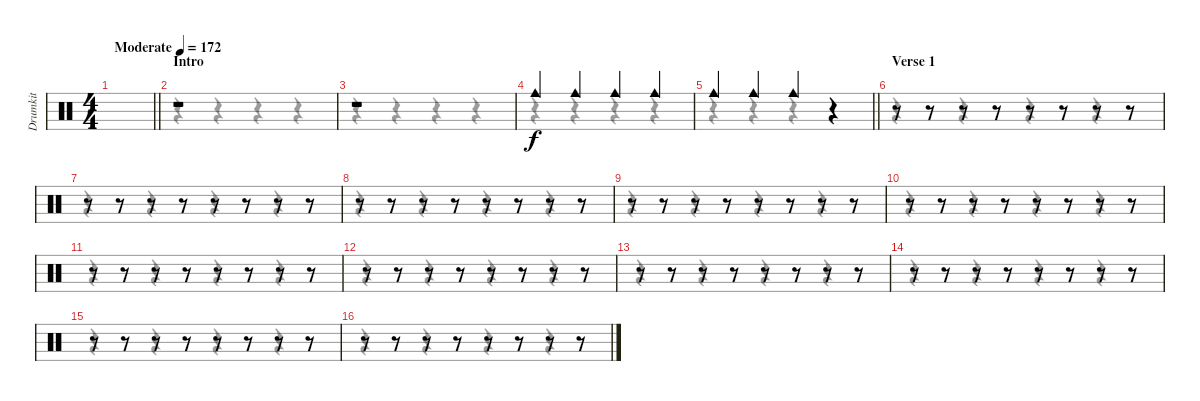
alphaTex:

\track ("Drumkit" "Drumkit") {instrument percussion}
\staff {score}
\articulation defaults
\voice
\ts (4 4)
\tempo (172 "Moderate")
\clef neutral
\barLineRight lightlight
\ks c
|
\section ("" "Intro")
r.1 |
r.1 |
"Cowbell medium (hit)".4 "Cowbell medium (hit)".4 "Cowbell medium (hit)".4 "Cowbell medium (hit)".4 |
\barLineRight lightlight "Cowbell medium (hit)".4 "Cowbell medium (hit)".4 "Cowbell medium (hit)".4
r.4 |
\section ("" "Verse 1")
r.8 r.8 r.8 r.8 r.8 r.8 r.8 r.8 |
r.8 r.8 r.8 r.8 r.8 r.8 r.8 r.8 |
r.8 r.8 r.8 r.8 r.8 r.8 r.8 r.8 |
r.8 r.8 r.8 r.8 r.8 r.8 r.8 r.8 |
r.8 r.8 r.8 r.8 r.8 r.8 r.8 r.8 |
r.8 r.8 r.8 r.8 r.8 r.8 r.8 r.8 |
r.8 r.8 r.8 r.8 r.8 r.8 r.8 r.8 |
r.8 r.8 r.8 r.8 r.8 r.8 r.8 r.8 |
r.8 r.8 r.8 r.8 r.8 r.8 r.8 r.8 |
r.8 r.8 r.8 r.8 r.8 r.8 r.8 r.8 |
r.8 r.8 r.8 r.8 r.8 r.8 r.8 r.8
\voice
\clef neutral
\ottava regular
\simile none
\barLineRight lightlight
\ks c
|
r.4 r.4 r.4 r.4 |
r.4 r.4 r.4 r.4 |
r.4 r.4 r.4 r.4 |
\barLineRight lightlight
r.4 r.4 r.4 r.4 |
r.4 r.4 r.4 r.4 |
r.4 r.4 r.4 r.4 |
r.4 r.4 r.4 r.4 |
r.4 r.4 r.4 r.4 |
r.4 r.4 r.4 r.4 |
r.4 r.4 r.4 r.4 |
r.4 r.4 r.4 r.4 |
r.4 r.4 r.4 r.4 |
r.4 r.4 r.4 r.4 |
r.4 r.4 r.4 r.4 |
r.4 r.4 r.4 r.4
